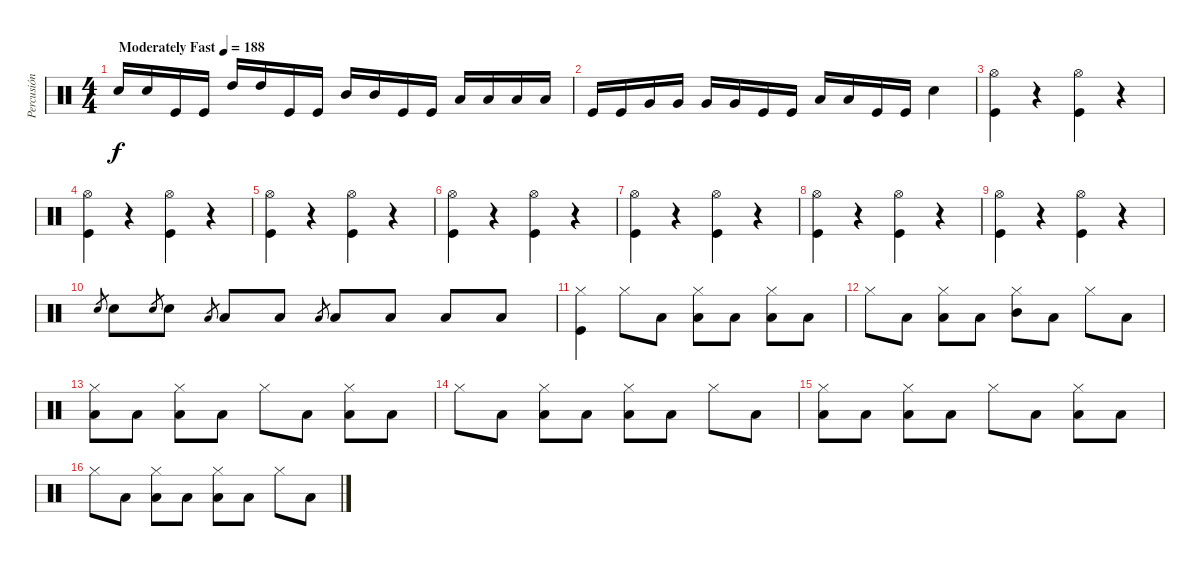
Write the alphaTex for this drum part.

\track ("Percusión" "Percusión") {instrument percussion}
\staff {score}
\articulation defaults
\ts (4 4)
\tempo (188 "Moderately Fast")
\clef neutral
\ks c "Snare (hit) 2".16{dy f} "Snare (hit) 2".16 "Kick (hit)".16 "Kick (hit)".16 "High Tom (hit)".16 "High Tom (hit)".16 "Kick (hit)".16 "Kick (hit)".16 "Mid Tom (hit)".16 "Mid Tom (hit)".16 "Kick (hit)".16 "Kick (hit)".16 "Low Tom (hit)".16 "Low Tom (hit)".16 "Low Tom (hit)".16 "Low Tom (hit)".16
|
"Kick (hit)".16 "Kick (hit)".16 "Very Low Tom (hit)".16 "Very Low Tom (hit)".16 "Very Low Tom (hit)".16 "Very Low Tom (hit)".16 "Kick (hit)".16 "Kick (hit)".16 "Low Tom (hit)".16 "Low Tom (hit)".16 "Kick (hit)".16 "Kick (hit)".16 "Snare (hit) 2".4 |
("Hi-Hat (open)" "Kick (hit)").4 r.4 ("Hi-Hat (open)" "Kick (hit)").4 r.4 |
("Hi-Hat (open)" "Kick (hit)").4 r.4 ("Hi-Hat (open)" "Kick (hit)").4 r.4 |
("Hi-Hat (open)" "Kick (hit)").4 r.4 ("Hi-Hat (open)" "Kick (hit)").4 r.4 |
("Hi-Hat (open)" "Kick (hit)").4 r.4 ("Hi-Hat (open)" "Kick (hit)").4 r.4 |
("Hi-Hat (open)" "Kick (hit)").4 r.4 ("Hi-Hat (open)" "Kick (hit)").4 r.4 |
("Hi-Hat (open)" "Kick (hit)").4 r.4 ("Hi-Hat (open)" "Kick (hit)").4 r.4 |
("Hi-Hat (open)" "Kick (hit)").4 r.4 ("Hi-Hat (open)" "Kick (hit)").4 r.4 |
"Snare (hit) 2".8{gr} "Snare (hit) 2".8 "Snare (hit) 2".8{gr} "Snare (hit) 2".8 "Low Tom (hit)".8{gr} "Low Tom (hit)".8 "Low Tom (hit)".8 "Low Tom (hit)".8{gr} "Low Tom (hit)".8 "Low Tom (hit)".8 "Low Tom (hit)".8 "Low Tom (hit)".8 |
("Hi-Hat (closed)" "Kick (hit)").4 "Hi-Hat (closed)".8 "Low Tom (hit)".8 ("Hi-Hat (closed)" "Low Tom (hit)").8 "Low Tom (hit)".8 ("Hi-Hat (closed)" "Low Tom (hit)").8 "Low Tom (hit)".8 |
"Hi-Hat (closed)".8 "Low Tom (hit)".8 ("Hi-Hat (closed)" "Low Tom (hit)").8 "Low Tom (hit)".8 ("Hi-Hat (closed)" "Mid Tom (hit)").8 "Low Tom (hit)".8 "Hi-Hat (closed)".8 "Low Tom (hit)".8 |
("Hi-Hat (closed)" "Low Tom (hit)").8 "Low Tom (hit)".8 ("Hi-Hat (closed)" "Low Tom (hit)").8 "Low Tom (hit)".8 "Hi-Hat (closed)".8 "Low Tom (hit)".8 ("Hi-Hat (closed)" "Low Tom (hit)").8 "Low Tom (hit)".8 |
"Hi-Hat (closed)".8 "Low Tom (hit)".8 ("Hi-Hat (closed)" "Low Tom (hit)").8 "Low Tom (hit)".8 ("Hi-Hat (closed)" "Low Tom (hit)").8 "Low Tom (hit)".8 "Hi-Hat (closed)".8 "Low Tom (hit)".8 |
("Hi-Hat (closed)" "Low Tom (hit)").8 "Low Tom (hit)".8 ("Hi-Hat (closed)" "Low Tom (hit)").8 "Low Tom (hit)".8 "Hi-Hat (closed)".8 "Low Tom (hit)".8 ("Hi-Hat (closed)" "Low Tom (hit)").8 "Low Tom (hit)".8 |
"Hi-Hat (closed)".8 "Low Tom (hit)".8 ("Hi-Hat (closed)" "Low Tom (hit)").8 "Low Tom (hit)".8 ("Hi-Hat (closed)" "Low Tom (hit)").8 "Low Tom (hit)".8 "Hi-Hat (closed)".8 "Low Tom (hit)".8
